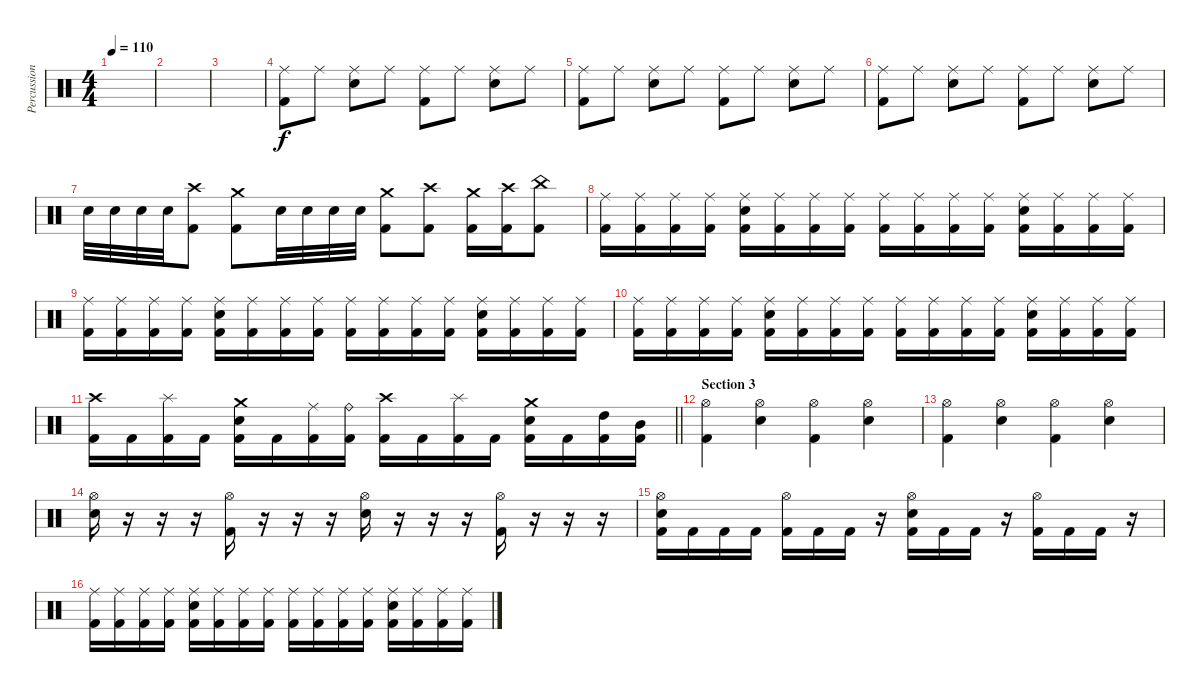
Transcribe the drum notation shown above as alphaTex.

\track ("Percussions" "Percussion") {instrument percussion}
\staff {score}
\articulation defaults
\ts (4 4)
\tempo 110
\clef neutral
\ks c
|
|
|
("Kick (hit) 2" "Ride (middle)").8 "Ride (middle)".8 ("Electric Snare (hit)" "Ride (middle)").8 "Ride (middle)".8 ("Kick (hit) 2" "Ride (middle)").8 "Ride (middle)".8 ("Electric Snare (hit)" "Ride (middle)").8 "Ride (middle)".8 |
("Kick (hit) 2" "Ride (middle)").8 "Ride (middle)".8 ("Electric Snare (hit)" "Ride (middle)").8 "Ride (middle)".8 ("Kick (hit) 2" "Ride (middle)").8 "Ride (middle)".8 ("Electric Snare (hit)" "Ride (middle)").8 "Ride (middle)".8 |
("Kick (hit) 2" "Ride (middle)").8 "Ride (middle)".8 ("Electric Snare (hit)" "Ride (middle)").8 "Ride (middle)".8 ("Kick (hit) 2" "Ride (middle)").8 "Ride (middle)".8 ("Electric Snare (hit)" "Ride (middle)").8 "Ride (middle)".8 |
"Electric Snare (hit)".32 "Electric Snare (hit)".32 "Electric Snare (hit)".32 "Electric Snare (hit)".32 ("Kick (hit) 2" "Crash high (hit)").8 ("Kick (hit) 2" "Crash medium (hit)").8 "Electric Snare (hit)".32 "Electric Snare (hit)".32 "Electric Snare (hit)".32 "Electric Snare (hit)".32 ("Kick (hit) 2" "Crash medium (hit)").8 ("Kick (hit) 2" "Crash high (hit)").8 ("Kick (hit) 2" "Crash medium (hit)").16 ("Kick (hit) 2" "Crash high (hit)").16 ("Kick (hit) 2" "China (hit)").8 |
("Kick (hit) 2" "Ride (middle)").16 ("Kick (hit) 2" "Ride (middle)").16 ("Kick (hit) 2" "Ride (middle)").16 ("Kick (hit) 2" "Ride (middle)").16 ("Kick (hit) 2" "Electric Snare (hit)" "Ride (middle)").16 ("Kick (hit) 2" "Ride (middle)").16 ("Kick (hit) 2" "Ride (middle)").16 ("Kick (hit) 2" "Ride (middle)").16 ("Kick (hit) 2" "Ride (middle)").16 ("Kick (hit) 2" "Ride (middle)").16 ("Kick (hit) 2" "Ride (middle)").16 ("Kick (hit) 2" "Ride (middle)").16 ("Kick (hit) 2" "Electric Snare (hit)" "Ride (middle)").16 ("Kick (hit) 2" "Ride (middle)").16 ("Kick (hit) 2" "Ride (middle)").16 ("Kick (hit) 2" "Ride (middle)").16 |
("Kick (hit) 2" "Ride (middle)").16 ("Kick (hit) 2" "Ride (middle)").16 ("Kick (hit) 2" "Ride (middle)").16 ("Kick (hit) 2" "Ride (middle)").16 ("Kick (hit) 2" "Electric Snare (hit)" "Ride (middle)").16 ("Kick (hit) 2" "Ride (middle)").16 ("Kick (hit) 2" "Ride (middle)").16 ("Kick (hit) 2" "Ride (middle)").16 ("Kick (hit) 2" "Ride (middle)").16 ("Kick (hit) 2" "Ride (middle)").16 ("Kick (hit) 2" "Ride (middle)").16 ("Kick (hit) 2" "Ride (middle)").16 ("Kick (hit) 2" "Electric Snare (hit)" "Ride (middle)").16 ("Kick (hit) 2" "Ride (middle)").16 ("Kick (hit) 2" "Ride (middle)").16 ("Kick (hit) 2" "Ride (middle)").16 |
("Kick (hit) 2" "Ride (middle)").16 ("Kick (hit) 2" "Ride (middle)").16 ("Kick (hit) 2" "Ride (middle)").16 ("Kick (hit) 2" "Ride (middle)").16 ("Kick (hit) 2" "Electric Snare (hit)" "Ride (middle)").16 ("Kick (hit) 2" "Ride (middle)").16 ("Kick (hit) 2" "Ride (middle)").16 ("Kick (hit) 2" "Ride (middle)").16 ("Kick (hit) 2" "Ride (middle)").16 ("Kick (hit) 2" "Ride (middle)").16 ("Kick (hit) 2" "Ride (middle)").16 ("Kick (hit) 2" "Ride (middle)").16 ("Kick (hit) 2" "Electric Snare (hit)" "Ride (middle)").16 ("Kick (hit) 2" "Ride (middle)").16 ("Kick (hit) 2" "Ride (middle)").16 ("Kick (hit) 2" "Ride (middle)").16 |
\barLineRight lightlight
("Kick (hit) 2" "Crash high (hit)").16 "Kick (hit) 2".16 ("Kick (hit) 2" "Splash (hit)").16 "Kick (hit) 2".16 ("Kick (hit) 2" "Electric Snare (hit)" "Crash medium (hit)").16 "Kick (hit) 2".16 ("Kick (hit) 2" "Ride (middle)").16 ("Kick (hit) 2" "Ride (bell)").16 ("Kick (hit) 2" "Crash high (hit)").16 "Kick (hit) 2".16 ("Kick (hit) 2" "Splash (hit)").16 "Kick (hit) 2".16 ("Kick (hit) 2" "Electric Snare (hit)" "Crash medium (hit)").16 "Kick (hit) 2".16 ("Kick (hit) 2" "High Tom (hit)").16 ("Kick (hit) 2" "Mid Tom (hit)").16 |
\section ("" "Section 3")
("Kick (hit) 2" "Hi-Hat (open)").4 ("Electric Snare (hit)" "Hi-Hat (open)").4 ("Kick (hit) 2" "Hi-Hat (open)").4 ("Electric Snare (hit)" "Hi-Hat (open)").4 |
("Kick (hit) 2" "Hi-Hat (open)").4 ("Electric Snare (hit)" "Hi-Hat (open)").4 ("Kick (hit) 2" "Hi-Hat (open)").4 ("Electric Snare (hit)" "Hi-Hat (open)").4 |
("Electric Snare (hit)" "Hi-Hat (open)").16 r.16 r.16 r.16 ("Kick (hit) 2" "Hi-Hat (open)").16 r.16 r.16 r.16 ("Electric Snare (hit)" "Hi-Hat (open)").16 r.16 r.16 r.16 ("Kick (hit) 2" "Hi-Hat (open)").16 r.16 r.16 r.16 |
("Kick (hit) 2" "Electric Snare (hit)" "Hi-Hat (open)").16 "Kick (hit) 2".16 "Kick (hit) 2".16 "Kick (hit) 2".16 ("Kick (hit) 2" "Hi-Hat (open)").16 "Kick (hit) 2".16 "Kick (hit) 2".16 r.16 ("Kick (hit) 2" "Electric Snare (hit)" "Hi-Hat (open)").16 "Kick (hit) 2".16 "Kick (hit) 2".16 r.16 ("Kick (hit) 2" "Hi-Hat (open)").16 "Kick (hit) 2".16 "Kick (hit) 2".16 r.16 |
("Kick (hit) 2" "Ride (middle)").16 ("Kick (hit) 2" "Ride (middle)").16 ("Kick (hit) 2" "Ride (middle)").16 ("Kick (hit) 2" "Ride (middle)").16 ("Kick (hit) 2" "Electric Snare (hit)" "Ride (middle)").16 ("Kick (hit) 2" "Ride (middle)").16 ("Kick (hit) 2" "Ride (middle)").16 ("Kick (hit) 2" "Ride (middle)").16 ("Kick (hit) 2" "Ride (middle)").16 ("Kick (hit) 2" "Ride (middle)").16 ("Kick (hit) 2" "Ride (middle)").16 ("Kick (hit) 2" "Ride (middle)").16 ("Kick (hit) 2" "Electric Snare (hit)" "Ride (middle)").16 ("Kick (hit) 2" "Ride (middle)").16 ("Kick (hit) 2" "Ride (middle)").16 ("Kick (hit) 2" "Ride (middle)").16
